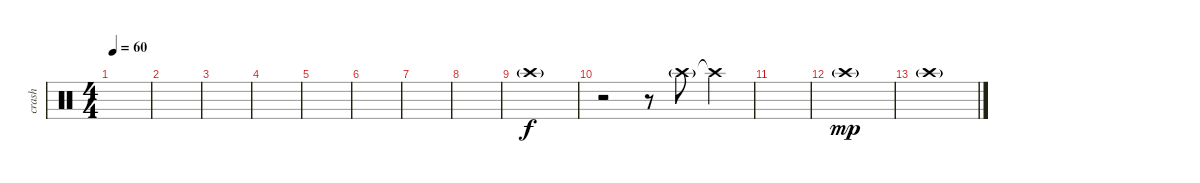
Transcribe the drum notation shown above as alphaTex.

\track ("crash" "crash") {instrument percussion}
\staff {score}
\articulation defaults
\ts (4 4)
\tempo 60
\clef neutral
\ks c
|
|
|
|
|
|
|
|
"Crash high (hit)"{g}.1 |
r.2 r.8 "Crash high (hit)"{g}.8 "Crash high (hit)"{t}.4{dy f} |
|
"Crash high (hit)"{g}.1{dy mp} |
"Crash high (hit)"{g}.1
